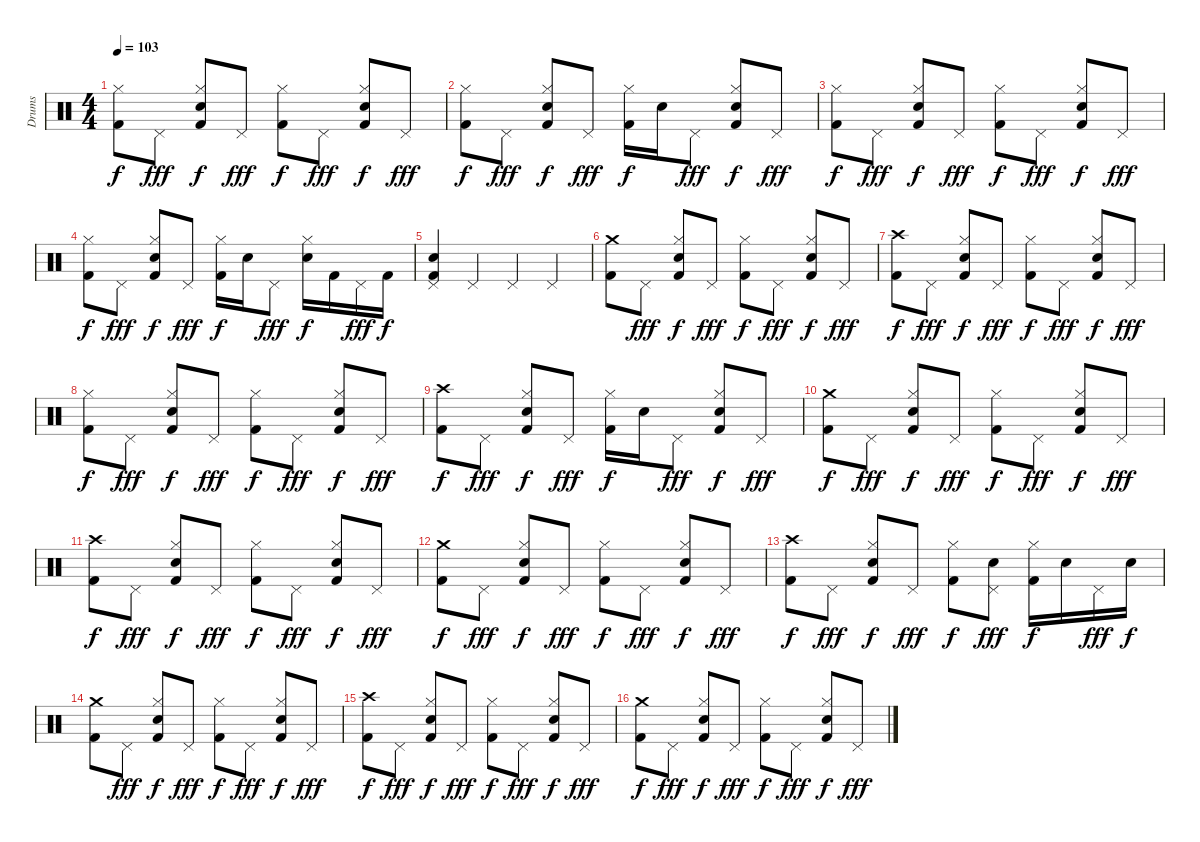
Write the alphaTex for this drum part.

\track ("Drums" "Drums") {instrument percussion}
\staff {score}
\articulation defaults
\ts (4 4)
\tempo 103
\clef neutral
\ks c
("Kick (hit) 2" "Hi-Hat (closed)").8{dy f} "Pedal Hi-Hat (hit)".8{dy fff} ("Kick (hit) 2" "Hi-Hat (closed)" "Snare (hit) 2").8{dy f} "Pedal Hi-Hat (hit)".8{dy fff} ("Kick (hit) 2" "Hi-Hat (closed)").8{dy f} "Pedal Hi-Hat (hit)".8{dy fff} ("Kick (hit) 2" "Hi-Hat (closed)" "Snare (hit) 2").8{dy f} "Pedal Hi-Hat (hit)".8{dy fff} |
("Kick (hit) 2" "Hi-Hat (closed)").8{dy f} "Pedal Hi-Hat (hit)".8{dy fff} ("Kick (hit) 2" "Hi-Hat (closed)" "Snare (hit) 2").8{dy f} "Pedal Hi-Hat (hit)".8{dy fff} ("Kick (hit) 2" "Hi-Hat (closed)").16{dy f} "Snare (hit) 2".16 "Pedal Hi-Hat (hit)".8{dy fff} ("Kick (hit) 2" "Hi-Hat (closed)" "Snare (hit) 2").8{dy f} "Pedal Hi-Hat (hit)".8{dy fff} |
("Kick (hit) 2" "Hi-Hat (closed)").8{dy f} "Pedal Hi-Hat (hit)".8{dy fff} ("Kick (hit) 2" "Hi-Hat (closed)" "Snare (hit) 2").8{dy f} "Pedal Hi-Hat (hit)".8{dy fff} ("Kick (hit) 2" "Hi-Hat (closed)").8{dy f} "Pedal Hi-Hat (hit)".8{dy fff} ("Kick (hit) 2" "Hi-Hat (closed)" "Snare (hit) 2").8{dy f} "Pedal Hi-Hat (hit)".8{dy fff} |
("Kick (hit) 2" "Hi-Hat (closed)").8{dy f} "Pedal Hi-Hat (hit)".8{dy fff} ("Kick (hit) 2" "Hi-Hat (closed)" "Snare (hit) 2").8{dy f} "Pedal Hi-Hat (hit)".8{dy fff} ("Kick (hit) 2" "Hi-Hat (closed)").16{dy f} "Snare (hit) 2".16 "Pedal Hi-Hat (hit)".8{dy fff} ("Hi-Hat (closed)" "Snare (hit) 2").16{dy f} "Kick (hit) 2".16 "Pedal Hi-Hat (hit)".16{dy fff} "Kick (hit) 2".16{dy f} |
("Kick (hit) 2" "Pedal Hi-Hat (hit)" "Snare (hit) 2").4 "Pedal Hi-Hat (hit)".4 "Pedal Hi-Hat (hit)".4 "Pedal Hi-Hat (hit)".4 |
("Kick (hit) 2" "Crash medium (hit)").8 "Pedal Hi-Hat (hit)".8{dy fff} ("Kick (hit) 2" "Hi-Hat (closed)" "Snare (hit) 2").8{dy f} "Pedal Hi-Hat (hit)".8{dy fff} ("Kick (hit) 2" "Hi-Hat (closed)").8{dy f} "Pedal Hi-Hat (hit)".8{dy fff} ("Kick (hit) 2" "Hi-Hat (closed)" "Snare (hit) 2").8{dy f} "Pedal Hi-Hat (hit)".8{dy fff} |
("Kick (hit) 2" "Crash high (hit)").8{dy f} "Pedal Hi-Hat (hit)".8{dy fff} ("Kick (hit) 2" "Hi-Hat (closed)" "Snare (hit) 2").8{dy f} "Pedal Hi-Hat (hit)".8{dy fff} ("Kick (hit) 2" "Hi-Hat (closed)").8{dy f} "Pedal Hi-Hat (hit)".8{dy fff} ("Kick (hit) 2" "Hi-Hat (closed)" "Snare (hit) 2").8{dy f} "Pedal Hi-Hat (hit)".8{dy fff} |
("Kick (hit) 2" "Hi-Hat (closed)").8{dy f} "Pedal Hi-Hat (hit)".8{dy fff} ("Kick (hit) 2" "Hi-Hat (closed)" "Snare (hit) 2").8{dy f} "Pedal Hi-Hat (hit)".8{dy fff} ("Kick (hit) 2" "Hi-Hat (closed)").8{dy f} "Pedal Hi-Hat (hit)".8{dy fff} ("Kick (hit) 2" "Hi-Hat (closed)" "Snare (hit) 2").8{dy f} "Pedal Hi-Hat (hit)".8{dy fff} |
("Kick (hit) 2" "Crash high (hit)").8{dy f} "Pedal Hi-Hat (hit)".8{dy fff} ("Kick (hit) 2" "Hi-Hat (closed)" "Snare (hit) 2").8{dy f} "Pedal Hi-Hat (hit)".8{dy fff} ("Kick (hit) 2" "Hi-Hat (closed)").16{dy f} "Snare (hit) 2".16 "Pedal Hi-Hat (hit)".8{dy fff} ("Kick (hit) 2" "Hi-Hat (closed)" "Snare (hit) 2").8{dy f} "Pedal Hi-Hat (hit)".8{dy fff} |
("Kick (hit) 2" "Crash medium (hit)").8{dy f} "Pedal Hi-Hat (hit)".8{dy fff} ("Kick (hit) 2" "Hi-Hat (closed)" "Snare (hit) 2").8{dy f} "Pedal Hi-Hat (hit)".8{dy fff} ("Kick (hit) 2" "Hi-Hat (closed)").8{dy f} "Pedal Hi-Hat (hit)".8{dy fff} ("Kick (hit) 2" "Hi-Hat (closed)" "Snare (hit) 2").8{dy f} "Pedal Hi-Hat (hit)".8{dy fff} |
("Kick (hit) 2" "Crash high (hit)").8{dy f} "Pedal Hi-Hat (hit)".8{dy fff} ("Kick (hit) 2" "Hi-Hat (closed)" "Snare (hit) 2").8{dy f} "Pedal Hi-Hat (hit)".8{dy fff} ("Kick (hit) 2" "Hi-Hat (closed)").8{dy f} "Pedal Hi-Hat (hit)".8{dy fff} ("Kick (hit) 2" "Hi-Hat (closed)" "Snare (hit) 2").8{dy f} "Pedal Hi-Hat (hit)".8{dy fff} |
("Kick (hit) 2" "Crash medium (hit)").8{dy f} "Pedal Hi-Hat (hit)".8{dy fff} ("Kick (hit) 2" "Hi-Hat (closed)" "Snare (hit) 2").8{dy f} "Pedal Hi-Hat (hit)".8{dy fff} ("Kick (hit) 2" "Hi-Hat (closed)").8{dy f} "Pedal Hi-Hat (hit)".8{dy fff} ("Kick (hit) 2" "Hi-Hat (closed)" "Snare (hit) 2").8{dy f} "Pedal Hi-Hat (hit)".8{dy fff} |
("Kick (hit) 2" "Crash high (hit)").8{dy f} "Pedal Hi-Hat (hit)".8{dy fff} ("Kick (hit) 2" "Hi-Hat (closed)" "Snare (hit) 2").8{dy f} "Pedal Hi-Hat (hit)".8{dy fff} ("Kick (hit) 2" "Hi-Hat (closed)").8{dy f} ("Pedal Hi-Hat (hit)" "Snare (hit) 2").8{dy fff} ("Kick (hit) 2" "Hi-Hat (closed)").16{dy f} "Snare (hit) 2".16 "Pedal Hi-Hat (hit)".16{dy fff} "Snare (hit) 2".16{dy f} |
("Kick (hit) 2" "Crash medium (hit)").8 "Pedal Hi-Hat (hit)".8{dy fff} ("Kick (hit) 2" "Hi-Hat (closed)" "Snare (hit) 2").8{dy f} "Pedal Hi-Hat (hit)".8{dy fff} ("Kick (hit) 2" "Hi-Hat (closed)").8{dy f} "Pedal Hi-Hat (hit)".8{dy fff} ("Kick (hit) 2" "Hi-Hat (closed)" "Snare (hit) 2").8{dy f} "Pedal Hi-Hat (hit)".8{dy fff} |
("Kick (hit) 2" "Crash high (hit)").8{dy f} "Pedal Hi-Hat (hit)".8{dy fff} ("Kick (hit) 2" "Hi-Hat (closed)" "Snare (hit) 2").8{dy f} "Pedal Hi-Hat (hit)".8{dy fff} ("Kick (hit) 2" "Hi-Hat (closed)").8{dy f} "Pedal Hi-Hat (hit)".8{dy fff} ("Kick (hit) 2" "Hi-Hat (closed)" "Snare (hit) 2").8{dy f} "Pedal Hi-Hat (hit)".8{dy fff} |
("Kick (hit) 2" "Crash medium (hit)").8{dy f} "Pedal Hi-Hat (hit)".8{dy fff} ("Kick (hit) 2" "Hi-Hat (closed)" "Snare (hit) 2").8{dy f} "Pedal Hi-Hat (hit)".8{dy fff} ("Kick (hit) 2" "Hi-Hat (closed)").8{dy f} "Pedal Hi-Hat (hit)".8{dy fff} ("Kick (hit) 2" "Hi-Hat (closed)" "Snare (hit) 2").8{dy f} "Pedal Hi-Hat (hit)".8{dy fff}
